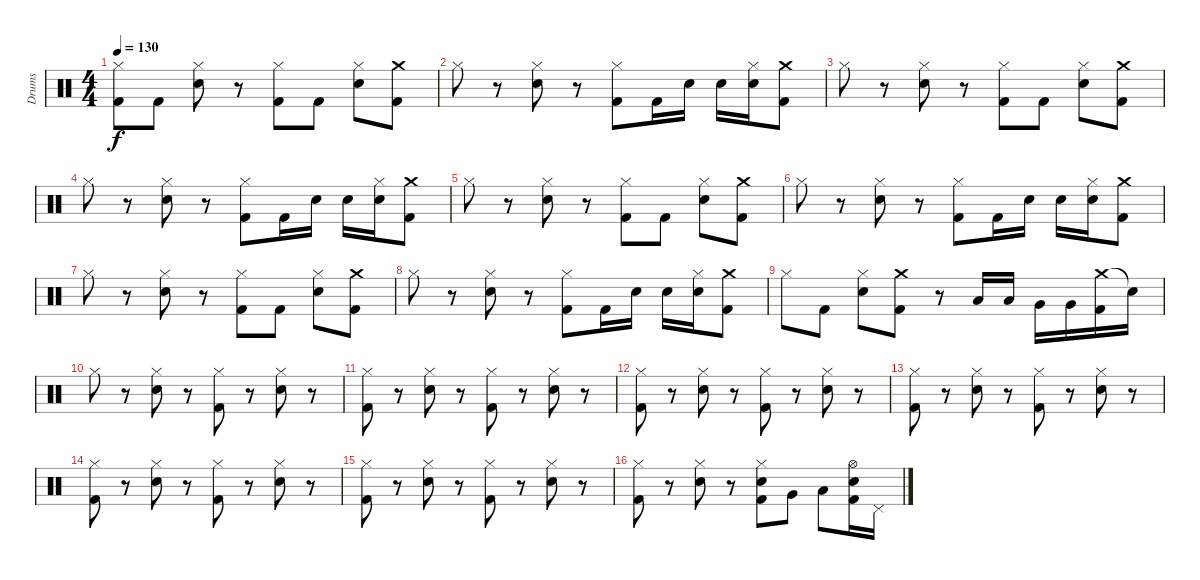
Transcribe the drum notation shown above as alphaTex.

\track ("Drums" "Drums") {instrument percussion}
\staff {score}
\articulation defaults
\ts (4 4)
\tempo 130
\clef neutral
\ks c
("Hi-Hat (closed)" "Kick (hit) 2").8{dy f} "Kick (hit) 2".8 ("Hi-Hat (closed)" "Snare (hit) 2").8 r.8 ("Hi-Hat (closed)" "Kick (hit) 2").8 "Kick (hit) 2".8 ("Hi-Hat (closed)" "Snare (hit) 2").8 ("Crash medium (hit)" "Kick (hit) 2").8 |
"Hi-Hat (closed)".8 r.8 ("Hi-Hat (closed)" "Snare (hit) 2").8 r.8 ("Hi-Hat (closed)" "Kick (hit) 2").8 "Kick (hit) 2".16 "Snare (hit) 2".16 "Snare (hit) 2".16 ("Hi-Hat (closed)" "Snare (hit) 2").16 ("Crash medium (hit)" "Kick (hit) 2").8 |
"Hi-Hat (closed)".8 r.8 ("Hi-Hat (closed)" "Snare (hit) 2").8 r.8 ("Hi-Hat (closed)" "Kick (hit) 2").8 "Kick (hit) 2".8 ("Hi-Hat (closed)" "Snare (hit) 2").8 ("Crash medium (hit)" "Kick (hit) 2").8 |
"Hi-Hat (closed)".8 r.8 ("Hi-Hat (closed)" "Snare (hit) 2").8 r.8 ("Hi-Hat (closed)" "Kick (hit) 2").8 "Kick (hit) 2".16 "Snare (hit) 2".16 "Snare (hit) 2".16 ("Hi-Hat (closed)" "Snare (hit) 2").16 ("Crash medium (hit)" "Kick (hit) 2").8 |
"Hi-Hat (closed)".8 r.8 ("Hi-Hat (closed)" "Snare (hit) 2").8 r.8 ("Hi-Hat (closed)" "Kick (hit) 2").8 "Kick (hit) 2".8 ("Hi-Hat (closed)" "Snare (hit) 2").8 ("Crash medium (hit)" "Kick (hit) 2").8 |
"Hi-Hat (closed)".8 r.8 ("Hi-Hat (closed)" "Snare (hit) 2").8 r.8 ("Hi-Hat (closed)" "Kick (hit) 2").8 "Kick (hit) 2".16 "Snare (hit) 2".16 "Snare (hit) 2".16 ("Hi-Hat (closed)" "Snare (hit) 2").16 ("Crash medium (hit)" "Kick (hit) 2").8 |
"Hi-Hat (closed)".8 r.8 ("Hi-Hat (closed)" "Snare (hit) 2").8 r.8 ("Hi-Hat (closed)" "Kick (hit) 2").8 "Kick (hit) 2".8 ("Hi-Hat (closed)" "Snare (hit) 2").8 ("Crash medium (hit)" "Kick (hit) 2").8 |
"Hi-Hat (closed)".8 r.8 ("Hi-Hat (closed)" "Snare (hit) 2").8 r.8 ("Hi-Hat (closed)" "Kick (hit) 2").8 "Kick (hit) 2".16 "Snare (hit) 2".16 "Snare (hit) 2".16 ("Hi-Hat (closed)" "Snare (hit) 2").16 ("Crash medium (hit)" "Kick (hit) 2").8 |
"Hi-Hat (closed)".8 "Kick (hit) 2".8 ("Hi-Hat (closed)" "Snare (hit) 2").8 ("Crash medium (hit)" "Kick (hit) 2").8 r.8 "Low Tom (hit)".16 "Low Tom (hit)".16 "Very Low Tom (hit)".16 "Very Low Tom (hit)".16 ("Crash medium (hit)" "Kick (hit) 2").16 "Snare (hit)"{t}.16 |
"Hi-Hat (closed)".8 r.8 ("Hi-Hat (closed)" "Snare (hit) 2").8 r.8 ("Hi-Hat (closed)" "Kick (hit) 2").8 r.8 ("Hi-Hat (closed)" "Snare (hit) 2").8 r.8 |
("Hi-Hat (closed)" "Kick (hit) 2").8 r.8 ("Hi-Hat (closed)" "Snare (hit) 2").8 r.8 ("Hi-Hat (closed)" "Kick (hit) 2").8 r.8 ("Hi-Hat (closed)" "Snare (hit) 2").8 r.8 |
("Hi-Hat (closed)" "Kick (hit) 2").8 r.8 ("Hi-Hat (closed)" "Snare (hit) 2").8 r.8 ("Hi-Hat (closed)" "Kick (hit) 2").8 r.8 ("Hi-Hat (closed)" "Snare (hit) 2").8 r.8 |
("Hi-Hat (closed)" "Kick (hit) 2").8 r.8 ("Hi-Hat (closed)" "Snare (hit) 2").8 r.8 ("Hi-Hat (closed)" "Kick (hit) 2").8 r.8 ("Hi-Hat (closed)" "Snare (hit) 2").8 r.8 |
("Hi-Hat (closed)" "Kick (hit) 2").8 r.8 ("Hi-Hat (closed)" "Snare (hit) 2").8 r.8 ("Hi-Hat (closed)" "Kick (hit) 2").8 r.8 ("Hi-Hat (closed)" "Snare (hit) 2").8 r.8 |
("Hi-Hat (closed)" "Kick (hit) 2").8 r.8 ("Hi-Hat (closed)" "Snare (hit) 2").8 r.8 ("Hi-Hat (closed)" "Kick (hit) 2").8 r.8 ("Hi-Hat (closed)" "Snare (hit) 2").8 r.8 |
("Hi-Hat (closed)" "Kick (hit) 2").8 r.8 ("Hi-Hat (closed)" "Snare (hit) 2").8 r.8 ("Hi-Hat (closed)" "Snare (hit) 2" "Kick (hit) 2").8 "Very Low Tom (hit)".8 "Low Floor Tom (hit)".8 ("Hi-Hat (open)" "Snare (hit) 2" "Kick (hit) 2").16 "Pedal Hi-Hat (hit)".16
